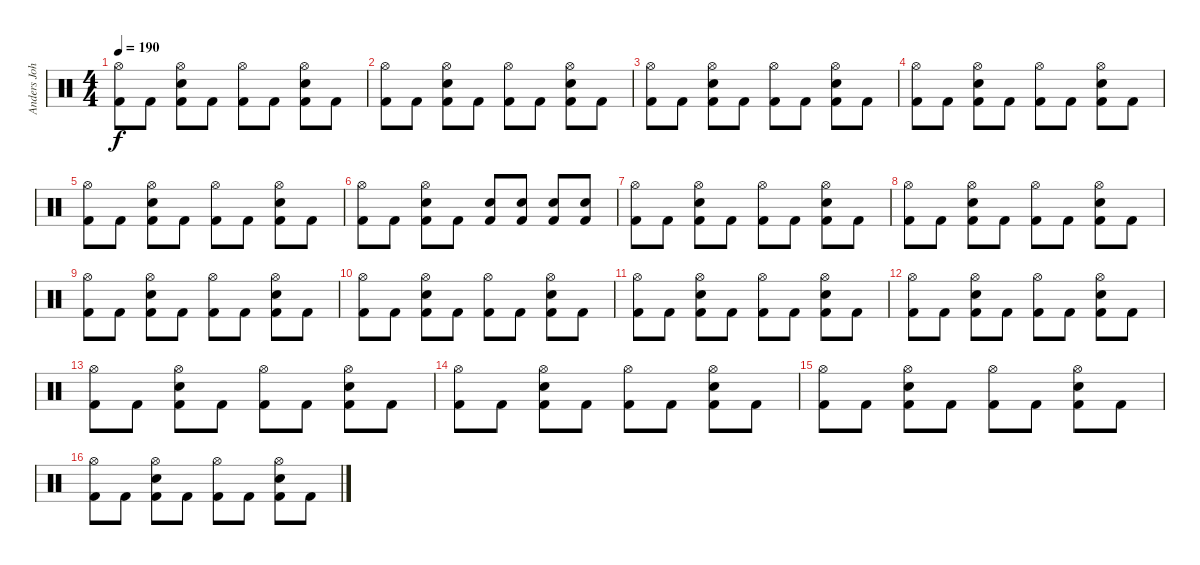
\track ("Anders Johansson Drums" "Anders Joh") {instrument percussion}
\staff {score}
\articulation defaults
\ts (4 4)
\tempo 190
\clef neutral
\ks c
("Hi-Hat (open)" "Kick (hit) 2").8{dy f} "Kick (hit) 2".8 ("Hi-Hat (open)" "Snare (hit) 2" "Kick (hit) 2").8 "Kick (hit) 2".8 ("Hi-Hat (open)" "Kick (hit) 2").8 "Kick (hit) 2".8 ("Hi-Hat (open)" "Snare (hit) 2" "Kick (hit) 2").8 "Kick (hit) 2".8 |
("Hi-Hat (open)" "Kick (hit) 2").8 "Kick (hit) 2".8 ("Hi-Hat (open)" "Snare (hit) 2" "Kick (hit) 2").8 "Kick (hit) 2".8 ("Hi-Hat (open)" "Kick (hit) 2").8 "Kick (hit) 2".8 ("Hi-Hat (open)" "Snare (hit) 2" "Kick (hit) 2").8 "Kick (hit) 2".8 |
("Hi-Hat (open)" "Kick (hit) 2").8 "Kick (hit) 2".8 ("Hi-Hat (open)" "Snare (hit) 2" "Kick (hit) 2").8 "Kick (hit) 2".8 ("Hi-Hat (open)" "Kick (hit) 2").8 "Kick (hit) 2".8 ("Hi-Hat (open)" "Snare (hit) 2" "Kick (hit) 2").8 "Kick (hit) 2".8 |
("Hi-Hat (open)" "Kick (hit) 2").8 "Kick (hit) 2".8 ("Hi-Hat (open)" "Snare (hit) 2" "Kick (hit) 2").8 "Kick (hit) 2".8 ("Hi-Hat (open)" "Kick (hit) 2").8 "Kick (hit) 2".8 ("Hi-Hat (open)" "Snare (hit) 2" "Kick (hit) 2").8 "Kick (hit) 2".8 |
("Hi-Hat (open)" "Kick (hit) 2").8 "Kick (hit) 2".8 ("Hi-Hat (open)" "Snare (hit) 2" "Kick (hit) 2").8 "Kick (hit) 2".8 ("Hi-Hat (open)" "Kick (hit) 2").8 "Kick (hit) 2".8 ("Hi-Hat (open)" "Snare (hit) 2" "Kick (hit) 2").8 "Kick (hit) 2".8 |
("Hi-Hat (open)" "Kick (hit) 2").8 "Kick (hit) 2".8 ("Hi-Hat (open)" "Snare (hit) 2" "Kick (hit) 2").8 "Kick (hit) 2".8 ("Snare (hit) 2" "Kick (hit) 2").8 ("Snare (hit) 2" "Kick (hit) 2").8 ("Snare (hit) 2" "Kick (hit) 2").8 ("Snare (hit) 2" "Kick (hit) 2").8 |
("Hi-Hat (open)" "Kick (hit) 2").8 "Kick (hit) 2".8 ("Hi-Hat (open)" "Snare (hit) 2" "Kick (hit) 2").8 "Kick (hit) 2".8 ("Hi-Hat (open)" "Kick (hit) 2").8 "Kick (hit) 2".8 ("Hi-Hat (open)" "Snare (hit) 2" "Kick (hit) 2").8 "Kick (hit) 2".8 |
("Hi-Hat (open)" "Kick (hit) 2").8 "Kick (hit) 2".8 ("Hi-Hat (open)" "Snare (hit) 2" "Kick (hit) 2").8 "Kick (hit) 2".8 ("Hi-Hat (open)" "Kick (hit) 2").8 "Kick (hit) 2".8 ("Hi-Hat (open)" "Snare (hit) 2" "Kick (hit) 2").8 "Kick (hit) 2".8 |
("Hi-Hat (open)" "Kick (hit) 2").8 "Kick (hit) 2".8 ("Hi-Hat (open)" "Snare (hit) 2" "Kick (hit) 2").8 "Kick (hit) 2".8 ("Hi-Hat (open)" "Kick (hit) 2").8 "Kick (hit) 2".8 ("Hi-Hat (open)" "Snare (hit) 2" "Kick (hit) 2").8 "Kick (hit) 2".8 |
("Hi-Hat (open)" "Kick (hit) 2").8 "Kick (hit) 2".8 ("Hi-Hat (open)" "Snare (hit) 2" "Kick (hit) 2").8 "Kick (hit) 2".8 ("Hi-Hat (open)" "Kick (hit) 2").8 "Kick (hit) 2".8 ("Hi-Hat (open)" "Snare (hit) 2" "Kick (hit) 2").8 "Kick (hit) 2".8 |
("Hi-Hat (open)" "Kick (hit) 2").8 "Kick (hit) 2".8 ("Hi-Hat (open)" "Snare (hit) 2" "Kick (hit) 2").8 "Kick (hit) 2".8 ("Hi-Hat (open)" "Kick (hit) 2").8 "Kick (hit) 2".8 ("Hi-Hat (open)" "Snare (hit) 2" "Kick (hit) 2").8 "Kick (hit) 2".8 |
("Hi-Hat (open)" "Kick (hit) 2").8 "Kick (hit) 2".8 ("Hi-Hat (open)" "Snare (hit) 2" "Kick (hit) 2").8 "Kick (hit) 2".8 ("Hi-Hat (open)" "Kick (hit) 2").8 "Kick (hit) 2".8 ("Hi-Hat (open)" "Snare (hit) 2" "Kick (hit) 2").8 "Kick (hit) 2".8 |
("Hi-Hat (open)" "Kick (hit) 2").8 "Kick (hit) 2".8 ("Hi-Hat (open)" "Snare (hit) 2" "Kick (hit) 2").8 "Kick (hit) 2".8 ("Hi-Hat (open)" "Kick (hit) 2").8 "Kick (hit) 2".8 ("Hi-Hat (open)" "Snare (hit) 2" "Kick (hit) 2").8 "Kick (hit) 2".8 |
("Hi-Hat (open)" "Kick (hit) 2").8 "Kick (hit) 2".8 ("Hi-Hat (open)" "Snare (hit) 2" "Kick (hit) 2").8 "Kick (hit) 2".8 ("Hi-Hat (open)" "Kick (hit) 2").8 "Kick (hit) 2".8 ("Hi-Hat (open)" "Snare (hit) 2" "Kick (hit) 2").8 "Kick (hit) 2".8 |
("Hi-Hat (open)" "Kick (hit) 2").8 "Kick (hit) 2".8 ("Hi-Hat (open)" "Snare (hit) 2" "Kick (hit) 2").8 "Kick (hit) 2".8 ("Hi-Hat (open)" "Kick (hit) 2").8 "Kick (hit) 2".8 ("Hi-Hat (open)" "Snare (hit) 2" "Kick (hit) 2").8 "Kick (hit) 2".8 |
("Hi-Hat (open)" "Kick (hit) 2").8 "Kick (hit) 2".8 ("Hi-Hat (open)" "Snare (hit) 2" "Kick (hit) 2").8 "Kick (hit) 2".8 ("Hi-Hat (open)" "Kick (hit) 2").8 "Kick (hit) 2".8 ("Hi-Hat (open)" "Snare (hit) 2" "Kick (hit) 2").8 "Kick (hit) 2".8
